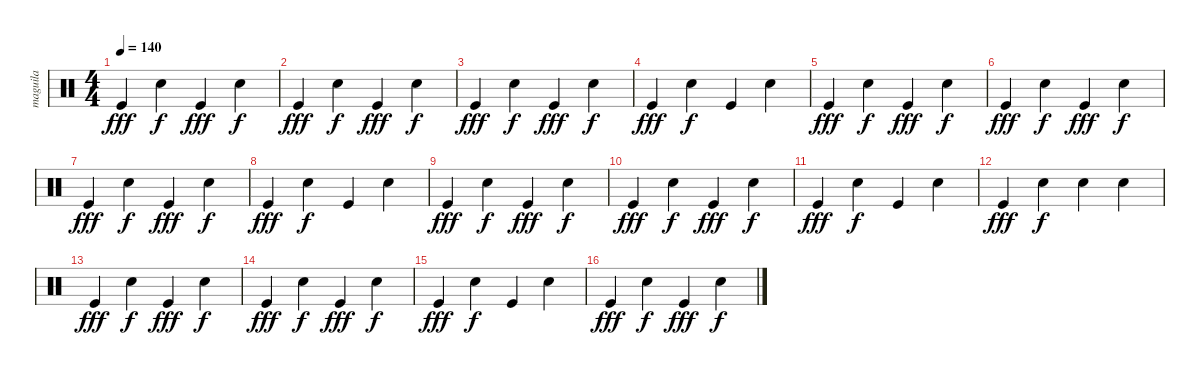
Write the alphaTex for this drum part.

\track ("maguila" "maguila") {instrument percussion}
\staff {score}
\articulation defaults
\ts (4 4)
\tempo 140
\clef neutral
\ks c "Kick (hit)".4{dy fff} "Snare (hit) 2".4{dy f} "Kick (hit)".4{dy fff} "Snare (hit) 2".4{dy f}
|
"Kick (hit)".4{dy fff} "Snare (hit) 2".4{dy f} "Kick (hit)".4{dy fff} "Snare (hit) 2".4{dy f} |
"Kick (hit)".4{dy fff} "Snare (hit) 2".4{dy f} "Kick (hit)".4{dy fff} "Snare (hit) 2".4{dy f} |
"Kick (hit)".4{dy fff} "Snare (hit) 2".4{dy f} "Kick (hit)".4 "Snare (hit) 2".4 |
"Kick (hit)".4{dy fff} "Snare (hit) 2".4{dy f} "Kick (hit)".4{dy fff} "Snare (hit) 2".4{dy f} |
"Kick (hit)".4{dy fff} "Snare (hit) 2".4{dy f} "Kick (hit)".4{dy fff} "Snare (hit) 2".4{dy f} |
"Kick (hit)".4{dy fff} "Snare (hit) 2".4{dy f} "Kick (hit)".4{dy fff} "Snare (hit) 2".4{dy f} |
"Kick (hit)".4{dy fff} "Snare (hit) 2".4{dy f} "Kick (hit)".4 "Snare (hit) 2".4 |
"Kick (hit)".4{dy fff} "Snare (hit) 2".4{dy f} "Kick (hit)".4{dy fff} "Snare (hit) 2".4{dy f} |
"Kick (hit)".4{dy fff} "Snare (hit) 2".4{dy f} "Kick (hit)".4{dy fff} "Snare (hit) 2".4{dy f} |
"Kick (hit)".4{dy fff} "Snare (hit) 2".4{dy f} "Kick (hit)".4 "Snare (hit) 2".4 |
"Kick (hit)".4{dy fff} "Snare (hit) 2".4{dy f} "Snare (hit) 2".4 "Snare (hit) 2".4 |
"Kick (hit)".4{dy fff} "Snare (hit) 2".4{dy f} "Kick (hit)".4{dy fff} "Snare (hit) 2".4{dy f} |
"Kick (hit)".4{dy fff} "Snare (hit) 2".4{dy f} "Kick (hit)".4{dy fff} "Snare (hit) 2".4{dy f} |
"Kick (hit)".4{dy fff} "Snare (hit) 2".4{dy f} "Kick (hit)".4 "Snare (hit) 2".4 |
"Kick (hit)".4{dy fff} "Snare (hit) 2".4{dy f} "Kick (hit)".4{dy fff} "Snare (hit) 2".4{dy f}
